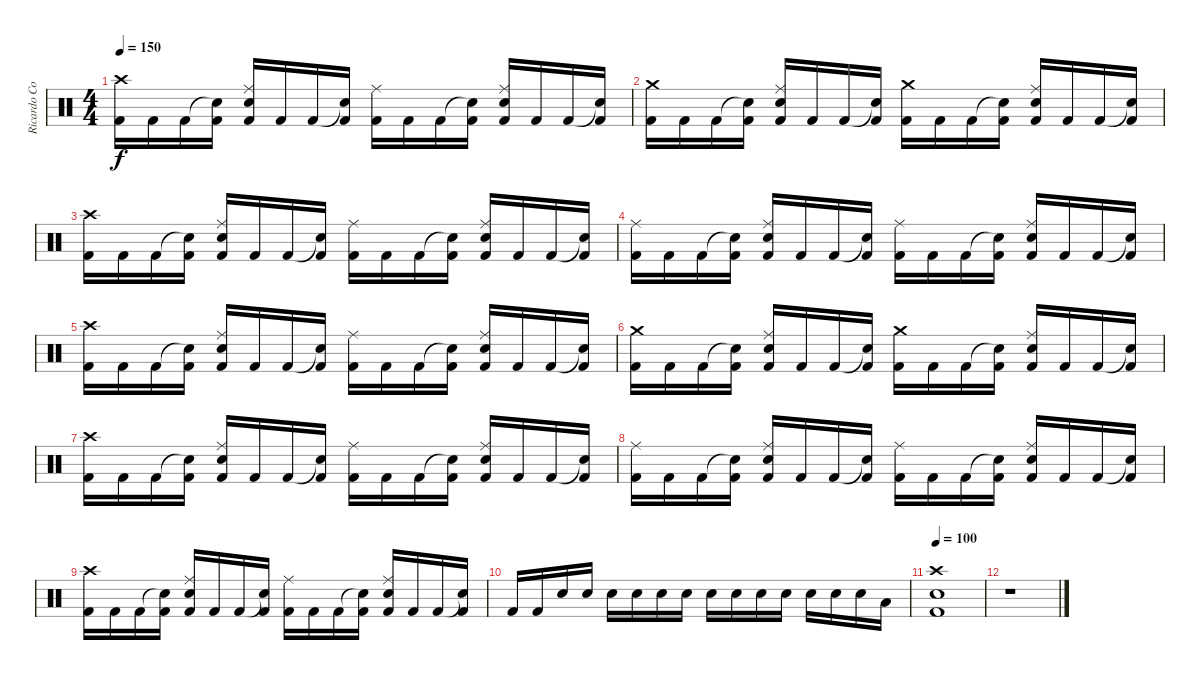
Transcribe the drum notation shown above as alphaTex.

\track ("Ricardo Confessori" "Ricardo Co") {instrument percussion}
\staff {score}
\articulation defaults
\ts (4 4)
\tempo 150
\clef neutral
\ks c
("Crash high (hit)" "Kick (hit) 2").16{dy f} "Kick (hit) 2".16 "Kick (hit) 2".16 ("Snare (hit)"{t} "Kick (hit) 2").16 ("Ride (middle)" "Electric Snare (hit)" "Kick (hit) 2").16 "Kick (hit) 2".16 "Kick (hit) 2".16 ("Snare (hit)"{t} "Kick (hit) 2").16 ("Ride (middle)" "Kick (hit) 2").16 "Kick (hit) 2".16 "Kick (hit) 2".16 ("Snare (hit)"{t} "Kick (hit) 2").16 ("Ride (middle)" "Electric Snare (hit)" "Kick (hit) 2").16 "Kick (hit) 2".16 "Kick (hit) 2".16 ("Snare (hit)"{t} "Kick (hit) 2").16 |
("Crash medium (hit)" "Kick (hit) 2").16 "Kick (hit) 2".16 "Kick (hit) 2".16 ("Snare (hit)"{t} "Kick (hit) 2").16 ("Ride (middle)" "Electric Snare (hit)" "Kick (hit) 2").16 "Kick (hit) 2".16 "Kick (hit) 2".16 ("Snare (hit)"{t} "Kick (hit) 2").16 ("Crash medium (hit)" "Kick (hit) 2").16 "Kick (hit) 2".16 "Kick (hit) 2".16 ("Snare (hit)"{t} "Kick (hit) 2").16 ("Ride (middle)" "Electric Snare (hit)" "Kick (hit) 2").16 "Kick (hit) 2".16 "Kick (hit) 2".16 ("Snare (hit)"{t} "Kick (hit) 2").16 |
("Crash high (hit)" "Kick (hit) 2").16 "Kick (hit) 2".16 "Kick (hit) 2".16 ("Snare (hit)"{t} "Kick (hit) 2").16 ("Ride (middle)" "Electric Snare (hit)" "Kick (hit) 2").16 "Kick (hit) 2".16 "Kick (hit) 2".16 ("Snare (hit)"{t} "Kick (hit) 2").16 ("Ride (middle)" "Kick (hit) 2").16 "Kick (hit) 2".16 "Kick (hit) 2".16 ("Snare (hit)"{t} "Kick (hit) 2").16 ("Ride (middle)" "Electric Snare (hit)" "Kick (hit) 2").16 "Kick (hit) 2".16 "Kick (hit) 2".16 ("Snare (hit)"{t} "Kick (hit) 2").16 |
("Ride (middle)" "Kick (hit) 2").16 "Kick (hit) 2".16 "Kick (hit) 2".16 ("Snare (hit)"{t} "Kick (hit) 2").16 ("Ride (middle)" "Electric Snare (hit)" "Kick (hit) 2").16 "Kick (hit) 2".16 "Kick (hit) 2".16 ("Snare (hit)"{t} "Kick (hit) 2").16 ("Ride (middle)" "Kick (hit) 2").16 "Kick (hit) 2".16 "Kick (hit) 2".16 ("Snare (hit)"{t} "Kick (hit) 2").16 ("Ride (middle)" "Electric Snare (hit)" "Kick (hit) 2").16 "Kick (hit) 2".16 "Kick (hit) 2".16 ("Snare (hit)"{t} "Kick (hit) 2").16 |
("Crash high (hit)" "Kick (hit) 2").16 "Kick (hit) 2".16 "Kick (hit) 2".16 ("Snare (hit)"{t} "Kick (hit) 2").16 ("Ride (middle)" "Electric Snare (hit)" "Kick (hit) 2").16 "Kick (hit) 2".16 "Kick (hit) 2".16 ("Snare (hit)"{t} "Kick (hit) 2").16 ("Ride (middle)" "Kick (hit) 2").16 "Kick (hit) 2".16 "Kick (hit) 2".16 ("Snare (hit)"{t} "Kick (hit) 2").16 ("Ride (middle)" "Electric Snare (hit)" "Kick (hit) 2").16 "Kick (hit) 2".16 "Kick (hit) 2".16 ("Snare (hit)"{t} "Kick (hit) 2").16 |
("Crash medium (hit)" "Kick (hit) 2").16 "Kick (hit) 2".16 "Kick (hit) 2".16 ("Snare (hit)"{t} "Kick (hit) 2").16 ("Ride (middle)" "Electric Snare (hit)" "Kick (hit) 2").16 "Kick (hit) 2".16 "Kick (hit) 2".16 ("Snare (hit)"{t} "Kick (hit) 2").16 ("Crash medium (hit)" "Kick (hit) 2").16 "Kick (hit) 2".16 "Kick (hit) 2".16 ("Snare (hit)"{t} "Kick (hit) 2").16 ("Ride (middle)" "Electric Snare (hit)" "Kick (hit) 2").16 "Kick (hit) 2".16 "Kick (hit) 2".16 ("Snare (hit)"{t} "Kick (hit) 2").16 |
("Crash high (hit)" "Kick (hit) 2").16 "Kick (hit) 2".16 "Kick (hit) 2".16 ("Snare (hit)"{t} "Kick (hit) 2").16 ("Ride (middle)" "Electric Snare (hit)" "Kick (hit) 2").16 "Kick (hit) 2".16 "Kick (hit) 2".16 ("Snare (hit)"{t} "Kick (hit) 2").16 ("Ride (middle)" "Kick (hit) 2").16 "Kick (hit) 2".16 "Kick (hit) 2".16 ("Snare (hit)"{t} "Kick (hit) 2").16 ("Ride (middle)" "Electric Snare (hit)" "Kick (hit) 2").16 "Kick (hit) 2".16 "Kick (hit) 2".16 ("Snare (hit)"{t} "Kick (hit) 2").16 |
("Ride (middle)" "Kick (hit) 2").16 "Kick (hit) 2".16 "Kick (hit) 2".16 ("Snare (hit)"{t} "Kick (hit) 2").16 ("Ride (middle)" "Electric Snare (hit)" "Kick (hit) 2").16 "Kick (hit) 2".16 "Kick (hit) 2".16 ("Snare (hit)"{t} "Kick (hit) 2").16 ("Ride (middle)" "Kick (hit) 2").16 "Kick (hit) 2".16 "Kick (hit) 2".16 ("Snare (hit)"{t} "Kick (hit) 2").16 ("Ride (middle)" "Electric Snare (hit)" "Kick (hit) 2").16 "Kick (hit) 2".16 "Kick (hit) 2".16 ("Snare (hit)"{t} "Kick (hit) 2").16 |
("Crash high (hit)" "Kick (hit) 2").16 "Kick (hit) 2".16 "Kick (hit) 2".16 ("Snare (hit)"{t} "Kick (hit) 2").16 ("Ride (middle)" "Electric Snare (hit)" "Kick (hit) 2").16 "Kick (hit) 2".16 "Kick (hit) 2".16 ("Snare (hit)"{t} "Kick (hit) 2").16 ("Ride (middle)" "Kick (hit) 2").16 "Kick (hit) 2".16 "Kick (hit) 2".16 ("Snare (hit)"{t} "Kick (hit) 2").16 ("Ride (middle)" "Electric Snare (hit)" "Kick (hit) 2").16 "Kick (hit) 2".16 "Kick (hit) 2".16 ("Snare (hit)"{t} "Kick (hit) 2").16 |
"Kick (hit) 2".16 "Kick (hit) 2".16 "Electric Snare (hit)".16 "Electric Snare (hit)".16 "Electric Snare (hit)".16 "Electric Snare (hit)".16 "Electric Snare (hit)".16 "Electric Snare (hit)".16 "Electric Snare (hit)".16 "Electric Snare (hit)".16 "Electric Snare (hit)".16 "Electric Snare (hit)".16 "Electric Snare (hit)".16 "Electric Snare (hit)".16 "Electric Snare (hit)".16 "Low Tom (hit)".16 |
\tempo 100
("Crash high (hit)" "Electric Snare (hit)" "Kick (hit) 2").1 |
r.1
